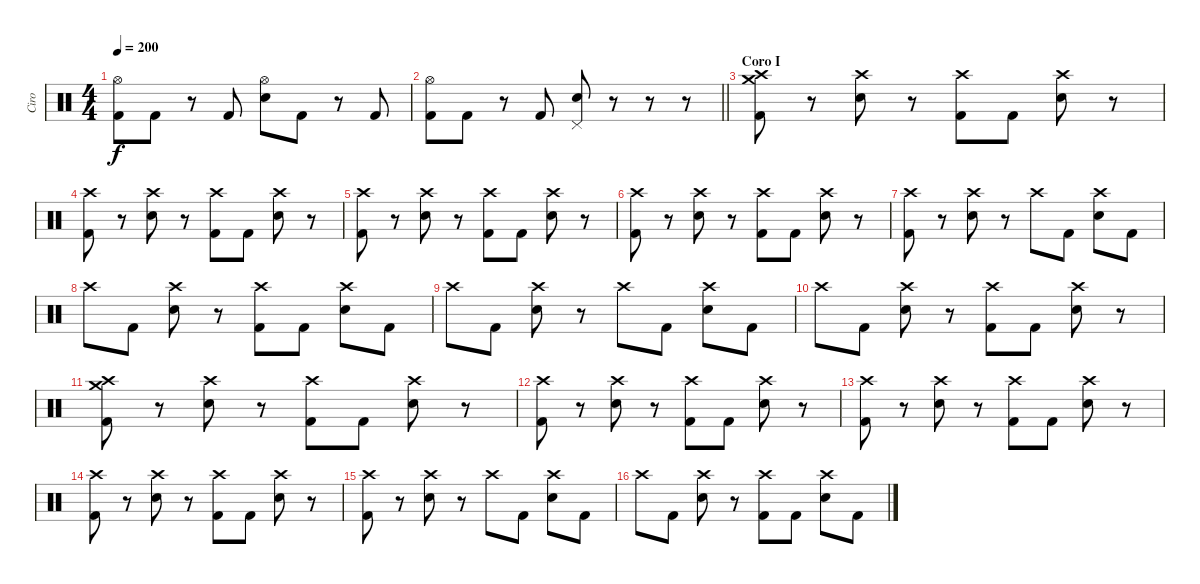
\track ("Ciro" "Ciro") {instrument percussion}
\staff {score}
\articulation defaults
\ts (4 4)
\tempo 200
\clef neutral
\ks c
("Hi-Hat (open)" "Kick (hit) 2").8{dy f} "Kick (hit) 2".8 r.8 "Kick (hit) 2".8 ("Hi-Hat (open)" "Snare (hit) 2").8 "Kick (hit) 2".8 r.8 "Kick (hit) 2".8 |
\barLineRight lightlight
("Hi-Hat (open)" "Kick (hit) 2").8 "Kick (hit) 2".8 r.8 "Kick (hit) 2".8 ("Pedal Hi-Hat (hit)" "Snare (hit) 2").8 r.8 r.8 r.8 |
\section ("" "Coro I")
("Crash high (hit)" "Crash medium (hit)" "Kick (hit) 2").8 r.8 ("Crash high (hit)" "Snare (hit) 2").8 r.8 ("Crash high (hit)" "Kick (hit) 2").8 "Kick (hit) 2".8 ("Crash high (hit)" "Snare (hit) 2").8 r.8 |
("Crash high (hit)" "Kick (hit) 2").8 r.8 ("Crash high (hit)" "Snare (hit) 2").8 r.8 ("Crash high (hit)" "Kick (hit) 2").8 "Kick (hit) 2".8 ("Crash high (hit)" "Snare (hit) 2").8 r.8 |
("Crash high (hit)" "Kick (hit) 2").8 r.8 ("Crash high (hit)" "Snare (hit) 2").8 r.8 ("Crash high (hit)" "Kick (hit) 2").8 "Kick (hit) 2".8 ("Crash high (hit)" "Snare (hit) 2").8 r.8 |
("Crash high (hit)" "Kick (hit) 2").8 r.8 ("Crash high (hit)" "Snare (hit) 2").8 r.8 ("Crash high (hit)" "Kick (hit) 2").8 "Kick (hit) 2".8 ("Crash high (hit)" "Snare (hit) 2").8 r.8 |
("Crash high (hit)" "Kick (hit) 2").8 r.8 ("Crash high (hit)" "Snare (hit) 2").8 r.8 "Crash high (hit)".8 "Kick (hit) 2".8 ("Crash high (hit)" "Snare (hit) 2").8 "Kick (hit) 2".8 |
"Crash high (hit)".8 "Kick (hit) 2".8 ("Crash high (hit)" "Snare (hit) 2").8 r.8 ("Crash high (hit)" "Kick (hit) 2").8 "Kick (hit) 2".8 ("Crash high (hit)" "Snare (hit) 2").8 "Kick (hit) 2".8 |
"Crash high (hit)".8 "Kick (hit) 2".8 ("Crash high (hit)" "Snare (hit) 2").8 r.8 "Crash high (hit)".8 "Kick (hit) 2".8 ("Crash high (hit)" "Snare (hit) 2").8 "Kick (hit) 2".8 |
"Crash high (hit)".8 "Kick (hit) 2".8 ("Crash high (hit)" "Snare (hit) 2").8 r.8 ("Crash high (hit)" "Kick (hit) 2").8 "Kick (hit) 2".8 ("Crash high (hit)" "Snare (hit) 2").8 r.8 |
("Crash high (hit)" "Crash medium (hit)" "Kick (hit) 2").8 r.8 ("Crash high (hit)" "Snare (hit) 2").8 r.8 ("Crash high (hit)" "Kick (hit) 2").8 "Kick (hit) 2".8 ("Crash high (hit)" "Snare (hit) 2").8 r.8 |
("Crash high (hit)" "Kick (hit) 2").8 r.8 ("Crash high (hit)" "Snare (hit) 2").8 r.8 ("Crash high (hit)" "Kick (hit) 2").8 "Kick (hit) 2".8 ("Crash high (hit)" "Snare (hit) 2").8 r.8 |
("Crash high (hit)" "Kick (hit) 2").8 r.8 ("Crash high (hit)" "Snare (hit) 2").8 r.8 ("Crash high (hit)" "Kick (hit) 2").8 "Kick (hit) 2".8 ("Crash high (hit)" "Snare (hit) 2").8 r.8 |
("Crash high (hit)" "Kick (hit) 2").8 r.8 ("Crash high (hit)" "Snare (hit) 2").8 r.8 ("Crash high (hit)" "Kick (hit) 2").8 "Kick (hit) 2".8 ("Crash high (hit)" "Snare (hit) 2").8 r.8 |
("Crash high (hit)" "Kick (hit) 2").8 r.8 ("Crash high (hit)" "Snare (hit) 2").8 r.8 "Crash high (hit)".8 "Kick (hit) 2".8 ("Crash high (hit)" "Snare (hit) 2").8 "Kick (hit) 2".8 |
"Crash high (hit)".8 "Kick (hit) 2".8 ("Crash high (hit)" "Snare (hit) 2").8 r.8 ("Crash high (hit)" "Kick (hit) 2").8 "Kick (hit) 2".8 ("Crash high (hit)" "Snare (hit) 2").8 "Kick (hit) 2".8
